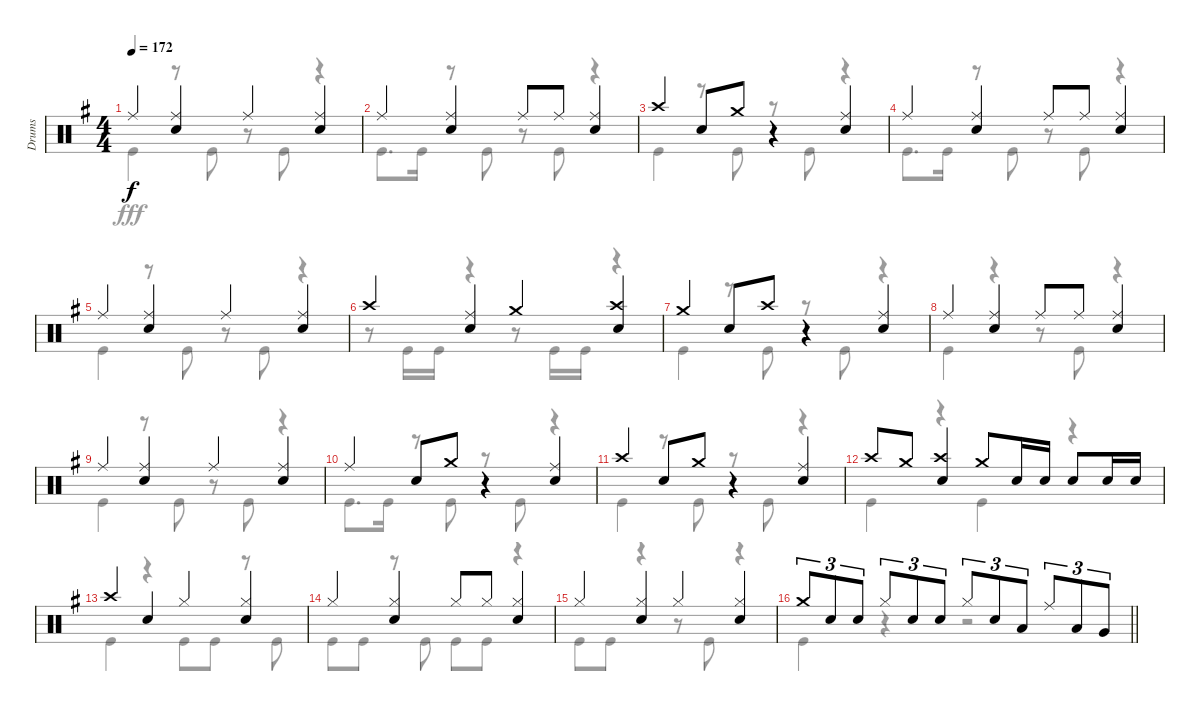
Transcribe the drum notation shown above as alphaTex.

\track ("Drums" "Drums") {instrument percussion}
\staff {score}
\articulation defaults
\voice
\ts (4 4)
\tempo 172
\clef neutral
\ks g "Ride (middle)".4{dy f}
("Ride (middle)" "Snare (hit) 2").4 "Ride (middle)".4 ("Ride (middle)" "Snare (hit) 2").4 |
"Ride (middle)".4 ("Ride (middle)" "Snare (hit) 2").4 "Ride (middle)".8 "Ride (middle)".8 ("Ride (middle)" "Snare (hit) 2").4 |
"Crash high (hit)".4 "Snare (hit) 2".8 "Crash medium (hit)".8 r.4 ("Ride (middle)" "Snare (hit) 2").4 |
"Ride (middle)".4 ("Ride (middle)" "Snare (hit) 2").4 "Ride (middle)".8 "Ride (middle)".8 ("Ride (middle)" "Snare (hit) 2").4 |
"Ride (middle)".4 ("Ride (middle)" "Snare (hit) 2").4 "Ride (middle)".4 ("Ride (middle)" "Snare (hit) 2").4 |
"Crash high (hit)".4 ("Ride (middle)" "Snare (hit) 2").4 "Crash medium (hit)".4 ("Crash high (hit)" "Snare (hit) 2").4 |
"Crash medium (hit)".4 "Snare (hit) 2".8 "Crash high (hit)".8 r.4 ("Ride (middle)" "Snare (hit) 2").4 |
"Ride (middle)".4 ("Ride (middle)" "Snare (hit) 2").4 "Ride (middle)".8 "Ride (middle)".8 ("Ride (middle)" "Snare (hit) 2").4 |
"Ride (middle)".4 ("Ride (middle)" "Snare (hit) 2").4 "Ride (middle)".4 ("Ride (middle)" "Snare (hit) 2").4 |
"Ride (middle)".4 "Snare (hit) 2".8 "Crash medium (hit)".8 r.4 ("Ride (middle)" "Snare (hit) 2").4 |
"Crash high (hit)".4 "Snare (hit) 2".8 "Crash medium (hit)".8 r.4 ("Ride (middle)" "Snare (hit) 2").4 |
"Crash high (hit)".8 "Crash medium (hit)".8 ("Crash high (hit)" "Snare (hit) 2").4 "Crash medium (hit)".8 "Snare (hit) 2".16 "Snare (hit) 2".16 "Snare (hit) 2".8 "Snare (hit) 2".16 "Snare (hit) 2".16 |
"Crash high (hit)".4 "Snare (hit) 2".4 "Hi-Hat (closed)".4 ("Hi-Hat (closed)" "Snare (hit) 2").4 |
"Hi-Hat (closed)".4 ("Hi-Hat (closed)" "Snare (hit) 2").4 "Hi-Hat (closed)".8 "Hi-Hat (closed)".8 ("Hi-Hat (closed)" "Snare (hit) 2").4 |
"Hi-Hat (closed)".4 ("Hi-Hat (closed)" "Snare (hit) 2").4 "Hi-Hat (closed)".4 ("Hi-Hat (closed)" "Snare (hit) 2").4 |
\barLineRight lightlight "Crash medium (hit)".8{tu (3 2)} "Snare (hit) 2".8{tu (3 2)} "Snare (hit) 2".8{tu (3 2)} "Hi-Hat (closed)".8{tu (3 2)} "Snare (hit) 2".8{tu (3 2)} "Snare (hit) 2".8{tu (3 2)} "Hi-Hat (closed)".8{tu (3 2)} "Snare (hit) 2".8{tu (3 2)} "Low Tom (hit)".8{tu (3 2)} "Ride (middle)".8{tu (3 2)} "Low Tom (hit)".8{tu (3 2)} "Very Low Tom (hit)".8{tu (3 2)}
\voice
\clef neutral
\ottava regular
\simile none
\ks g "Kick (hit)".4{dy fff}
r.8 "Kick (hit)".8 r.8 "Kick (hit)".8 r.4 |
"Kick (hit)".8{d} "Kick (hit)".16 r.8 "Kick (hit)".8 r.8 "Kick (hit)".8 r.4 |
"Kick (hit)".4 r.8 "Kick (hit)".8 r.8 "Kick (hit)".8 r.4 |
"Kick (hit)".8{d} "Kick (hit)".16 r.8 "Kick (hit)".8 r.8 "Kick (hit)".8 r.4 |
"Kick (hit)".4 r.8 "Kick (hit)".8 r.8 "Kick (hit)".8 r.4 |
r.8 "Kick (hit)".16 "Kick (hit)".16 r.4 r.8 "Kick (hit)".16 "Kick (hit)".16 r.4 |
"Kick (hit)".4 r.8 "Kick (hit)".8 r.8 "Kick (hit)".8 r.4 |
"Kick (hit)".4 r.4 r.8 "Kick (hit)".8 r.4 |
"Kick (hit)".4 r.8 "Kick (hit)".8 r.8 "Kick (hit)".8 r.4 |
"Kick (hit)".8{d} "Kick (hit)".16 r.8 "Kick (hit)".8 r.8 "Kick (hit)".8 r.4 |
"Kick (hit)".4 r.8 "Kick (hit)".8 r.8 "Kick (hit)".8 r.4 |
"Kick (hit)".4 r.4 "Kick (hit)".4 r.4 |
"Kick (hit)".4 r.4 "Kick (hit)".8 "Kick (hit)".8 r.8 "Kick (hit)".8 |
"Kick (hit)".8 "Kick (hit)".8 r.8 "Kick (hit)".8 "Kick (hit)".8 "Kick (hit)".8 r.4 |
"Kick (hit)".8 "Kick (hit)".8 r.4 r.8 "Kick (hit)".8 r.4 |
\barLineRight lightlight "Kick (hit)".4
r.4 r.2
